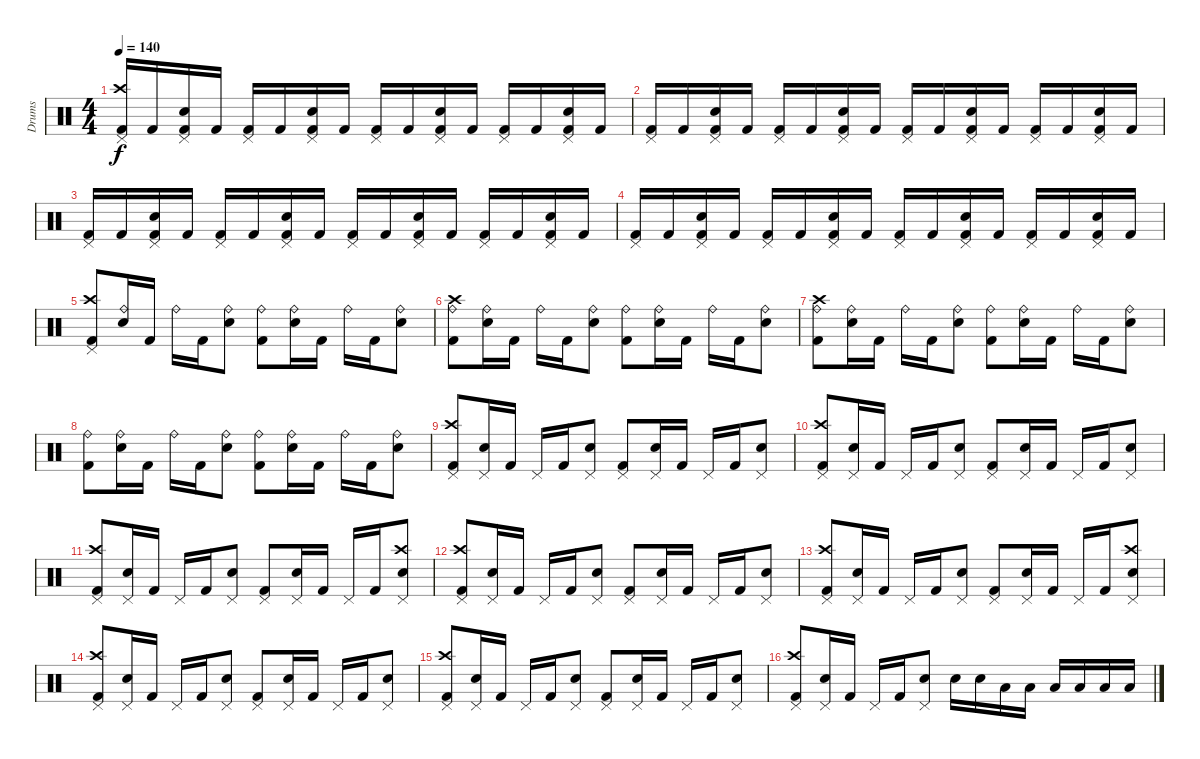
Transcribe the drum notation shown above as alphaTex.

\track ("Drums" "Drums") {instrument percussion}
\staff {score}
\articulation defaults
\ts (4 4)
\tempo 140
\clef neutral
\ks c
("Pedal Hi-Hat (hit)" "Crash high (hit)" "Kick (hit) 2").16{dy f} "Kick (hit) 2".16 ("Pedal Hi-Hat (hit)" "Electric Snare (hit)" "Kick (hit) 2").16 "Kick (hit) 2".16 ("Pedal Hi-Hat (hit)" "Kick (hit) 2").16 "Kick (hit) 2".16 ("Pedal Hi-Hat (hit)" "Electric Snare (hit)" "Kick (hit) 2").16 "Kick (hit) 2".16 ("Pedal Hi-Hat (hit)" "Kick (hit) 2").16 "Kick (hit) 2".16 ("Pedal Hi-Hat (hit)" "Electric Snare (hit)" "Kick (hit) 2").16 "Kick (hit) 2".16 ("Pedal Hi-Hat (hit)" "Kick (hit) 2").16 "Kick (hit) 2".16 ("Pedal Hi-Hat (hit)" "Electric Snare (hit)" "Kick (hit) 2").16 "Kick (hit) 2".16 |
("Pedal Hi-Hat (hit)" "Kick (hit) 2").16 "Kick (hit) 2".16 ("Pedal Hi-Hat (hit)" "Electric Snare (hit)" "Kick (hit) 2").16 "Kick (hit) 2".16 ("Pedal Hi-Hat (hit)" "Kick (hit) 2").16 "Kick (hit) 2".16 ("Pedal Hi-Hat (hit)" "Electric Snare (hit)" "Kick (hit) 2").16 "Kick (hit) 2".16 ("Pedal Hi-Hat (hit)" "Kick (hit) 2").16 "Kick (hit) 2".16 ("Pedal Hi-Hat (hit)" "Electric Snare (hit)" "Kick (hit) 2").16 "Kick (hit) 2".16 ("Pedal Hi-Hat (hit)" "Kick (hit) 2").16 "Kick (hit) 2".16 ("Pedal Hi-Hat (hit)" "Electric Snare (hit)" "Kick (hit) 2").16 "Kick (hit) 2".16 |
("Pedal Hi-Hat (hit)" "Kick (hit) 2").16 "Kick (hit) 2".16 ("Pedal Hi-Hat (hit)" "Electric Snare (hit)" "Kick (hit) 2").16 "Kick (hit) 2".16 ("Pedal Hi-Hat (hit)" "Kick (hit) 2").16 "Kick (hit) 2".16 ("Pedal Hi-Hat (hit)" "Electric Snare (hit)" "Kick (hit) 2").16 "Kick (hit) 2".16 ("Pedal Hi-Hat (hit)" "Kick (hit) 2").16 "Kick (hit) 2".16 ("Pedal Hi-Hat (hit)" "Electric Snare (hit)" "Kick (hit) 2").16 "Kick (hit) 2".16 ("Pedal Hi-Hat (hit)" "Kick (hit) 2").16 "Kick (hit) 2".16 ("Pedal Hi-Hat (hit)" "Electric Snare (hit)" "Kick (hit) 2").16 "Kick (hit) 2".16 |
("Pedal Hi-Hat (hit)" "Kick (hit) 2").16 "Kick (hit) 2".16 ("Pedal Hi-Hat (hit)" "Electric Snare (hit)" "Kick (hit) 2").16 "Kick (hit) 2".16 ("Pedal Hi-Hat (hit)" "Kick (hit) 2").16 "Kick (hit) 2".16 ("Pedal Hi-Hat (hit)" "Electric Snare (hit)" "Kick (hit) 2").16 "Kick (hit) 2".16 ("Pedal Hi-Hat (hit)" "Kick (hit) 2").16 "Kick (hit) 2".16 ("Pedal Hi-Hat (hit)" "Electric Snare (hit)" "Kick (hit) 2").16 "Kick (hit) 2".16 ("Pedal Hi-Hat (hit)" "Kick (hit) 2").16 "Kick (hit) 2".16 ("Pedal Hi-Hat (hit)" "Electric Snare (hit)" "Kick (hit) 2").16 "Kick (hit) 2".16 |
("Pedal Hi-Hat (hit)" "Crash high (hit)" "Kick (hit) 2").8 ("Ride (bell)" "Electric Snare (hit)").16 "Kick (hit) 2".16 "Ride (bell)".16 "Kick (hit) 2".16 ("Ride (bell)" "Electric Snare (hit)").8 ("Ride (bell)" "Kick (hit) 2").8 ("Ride (bell)" "Electric Snare (hit)").16 "Kick (hit) 2".16 "Ride (bell)".16 "Kick (hit) 2".16 ("Ride (bell)" "Electric Snare (hit)").8 |
("Ride (bell)" "Crash high (hit)" "Kick (hit) 2").8 ("Ride (bell)" "Electric Snare (hit)").16 "Kick (hit) 2".16 "Ride (bell)".16 "Kick (hit) 2".16 ("Ride (bell)" "Electric Snare (hit)").8 ("Ride (bell)" "Kick (hit) 2").8 ("Ride (bell)" "Electric Snare (hit)").16 "Kick (hit) 2".16 "Ride (bell)".16 "Kick (hit) 2".16 ("Ride (bell)" "Electric Snare (hit)").8 |
("Ride (bell)" "Crash high (hit)" "Kick (hit) 2").8 ("Ride (bell)" "Electric Snare (hit)").16 "Kick (hit) 2".16 "Ride (bell)".16 "Kick (hit) 2".16 ("Ride (bell)" "Electric Snare (hit)").8 ("Ride (bell)" "Kick (hit) 2").8 ("Ride (bell)" "Electric Snare (hit)").16 "Kick (hit) 2".16 "Ride (bell)".16 "Kick (hit) 2".16 ("Ride (bell)" "Electric Snare (hit)").8 |
("Ride (bell)" "Kick (hit) 2").8 ("Ride (bell)" "Electric Snare (hit)").16 "Kick (hit) 2".16 "Ride (bell)".16 "Kick (hit) 2".16 ("Ride (bell)" "Electric Snare (hit)").8 ("Ride (bell)" "Kick (hit) 2").8 ("Ride (bell)" "Electric Snare (hit)").16 "Kick (hit) 2".16 "Ride (bell)".16 "Kick (hit) 2".16 ("Ride (bell)" "Electric Snare (hit)").8 |
("Pedal Hi-Hat (hit)" "Crash high (hit)" "Kick (hit) 2").8 ("Pedal Hi-Hat (hit)" "Electric Snare (hit)").16 "Kick (hit) 2".16 "Pedal Hi-Hat (hit)".16 "Kick (hit) 2".16 ("Pedal Hi-Hat (hit)" "Electric Snare (hit)").8 ("Pedal Hi-Hat (hit)" "Kick (hit) 2").8 ("Pedal Hi-Hat (hit)" "Electric Snare (hit)").16 "Kick (hit) 2".16 "Pedal Hi-Hat (hit)".16 "Kick (hit) 2".16 ("Pedal Hi-Hat (hit)" "Electric Snare (hit)").8 |
("Pedal Hi-Hat (hit)" "Crash high (hit)" "Kick (hit) 2").8 ("Pedal Hi-Hat (hit)" "Electric Snare (hit)").16 "Kick (hit) 2".16 "Pedal Hi-Hat (hit)".16 "Kick (hit) 2".16 ("Pedal Hi-Hat (hit)" "Electric Snare (hit)").8 ("Pedal Hi-Hat (hit)" "Kick (hit) 2").8 ("Pedal Hi-Hat (hit)" "Electric Snare (hit)").16 "Kick (hit) 2".16 "Pedal Hi-Hat (hit)".16 "Kick (hit) 2".16 ("Pedal Hi-Hat (hit)" "Electric Snare (hit)").8 |
("Pedal Hi-Hat (hit)" "Crash high (hit)" "Kick (hit) 2").8 ("Pedal Hi-Hat (hit)" "Electric Snare (hit)").16 "Kick (hit) 2".16 "Pedal Hi-Hat (hit)".16 "Kick (hit) 2".16 ("Pedal Hi-Hat (hit)" "Electric Snare (hit)").8 ("Pedal Hi-Hat (hit)" "Kick (hit) 2").8 ("Pedal Hi-Hat (hit)" "Electric Snare (hit)").16 "Kick (hit) 2".16 "Pedal Hi-Hat (hit)".16 "Kick (hit) 2".16 ("Pedal Hi-Hat (hit)" "Electric Snare (hit)" "Crash high (hit)").8 |
("Pedal Hi-Hat (hit)" "Crash high (hit)" "Kick (hit) 2").8 ("Pedal Hi-Hat (hit)" "Electric Snare (hit)").16 "Kick (hit) 2".16 "Pedal Hi-Hat (hit)".16 "Kick (hit) 2".16 ("Pedal Hi-Hat (hit)" "Electric Snare (hit)").8 ("Pedal Hi-Hat (hit)" "Kick (hit) 2").8 ("Pedal Hi-Hat (hit)" "Electric Snare (hit)").16 "Kick (hit) 2".16 "Pedal Hi-Hat (hit)".16 "Kick (hit) 2".16 ("Pedal Hi-Hat (hit)" "Electric Snare (hit)").8 |
("Pedal Hi-Hat (hit)" "Crash high (hit)" "Kick (hit) 2").8 ("Pedal Hi-Hat (hit)" "Electric Snare (hit)").16 "Kick (hit) 2".16 "Pedal Hi-Hat (hit)".16 "Kick (hit) 2".16 ("Pedal Hi-Hat (hit)" "Electric Snare (hit)").8 ("Pedal Hi-Hat (hit)" "Kick (hit) 2").8 ("Pedal Hi-Hat (hit)" "Electric Snare (hit)").16 "Kick (hit) 2".16 "Pedal Hi-Hat (hit)".16 "Kick (hit) 2".16 ("Pedal Hi-Hat (hit)" "Electric Snare (hit)" "Crash high (hit)").8 |
("Pedal Hi-Hat (hit)" "Crash high (hit)" "Kick (hit) 2").8 ("Pedal Hi-Hat (hit)" "Electric Snare (hit)").16 "Kick (hit) 2".16 "Pedal Hi-Hat (hit)".16 "Kick (hit) 2".16 ("Pedal Hi-Hat (hit)" "Electric Snare (hit)").8 ("Pedal Hi-Hat (hit)" "Kick (hit) 2").8 ("Pedal Hi-Hat (hit)" "Electric Snare (hit)").16 "Kick (hit) 2".16 "Pedal Hi-Hat (hit)".16 "Kick (hit) 2".16 ("Pedal Hi-Hat (hit)" "Electric Snare (hit)").8 |
("Pedal Hi-Hat (hit)" "Crash high (hit)" "Kick (hit) 2").8 ("Pedal Hi-Hat (hit)" "Electric Snare (hit)").16 "Kick (hit) 2".16 "Pedal Hi-Hat (hit)".16 "Kick (hit) 2".16 ("Pedal Hi-Hat (hit)" "Electric Snare (hit)").8 ("Pedal Hi-Hat (hit)" "Kick (hit) 2").8 ("Pedal Hi-Hat (hit)" "Electric Snare (hit)").16 "Kick (hit) 2".16 "Pedal Hi-Hat (hit)".16 "Kick (hit) 2".16 ("Pedal Hi-Hat (hit)" "Electric Snare (hit)").8 |
("Pedal Hi-Hat (hit)" "Crash high (hit)" "Kick (hit) 2").8 ("Pedal Hi-Hat (hit)" "Electric Snare (hit)").16 "Kick (hit) 2".16 "Pedal Hi-Hat (hit)".16 "Kick (hit) 2".16 ("Pedal Hi-Hat (hit)" "Electric Snare (hit)").8 "Electric Snare (hit)".16 "Electric Snare (hit)".16 "Low Tom (hit)".16 "Low Tom (hit)".16 "Low Floor Tom (hit)".16 "Low Floor Tom (hit)".16 "Low Floor Tom (hit)".16 "Low Floor Tom (hit)".16
